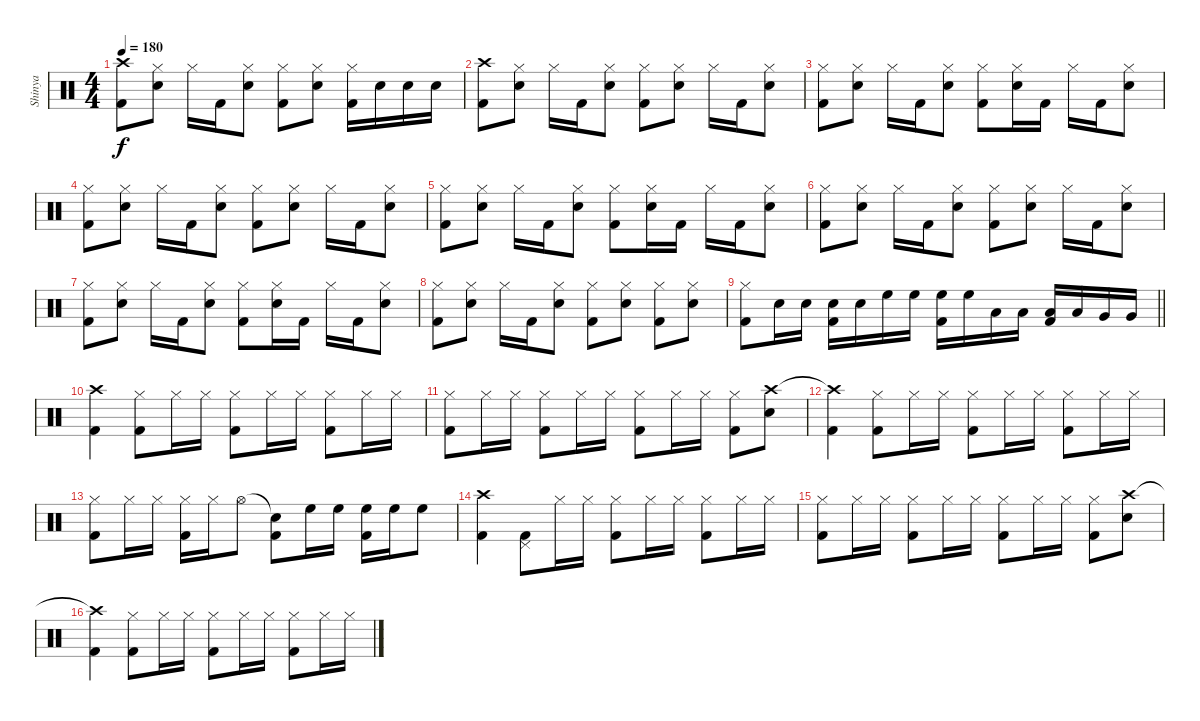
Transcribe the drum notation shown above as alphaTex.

\track ("Shinya" "Shinya") {instrument percussion}
\staff {score}
\articulation defaults
\ts (4 4)
\tempo 180
\clef neutral
\ks c
("Crash high (hit)" "Kick (hit) 2").8{dy f} ("Hi-Hat (closed)" "Electric Snare (hit)").8 "Hi-Hat (closed)".16 "Kick (hit) 2".16 ("Hi-Hat (closed)" "Electric Snare (hit)").8 ("Hi-Hat (closed)" "Kick (hit) 2").8 ("Hi-Hat (closed)" "Electric Snare (hit)").8 ("Hi-Hat (closed)" "Kick (hit) 2").16 "Electric Snare (hit)".16 "Electric Snare (hit)".16 "Electric Snare (hit)".16 |
("Crash high (hit)" "Kick (hit) 2").8 ("Hi-Hat (closed)" "Electric Snare (hit)").8 "Hi-Hat (closed)".16 "Kick (hit) 2".16 ("Hi-Hat (closed)" "Electric Snare (hit)").8 ("Hi-Hat (closed)" "Kick (hit) 2").8 ("Hi-Hat (closed)" "Electric Snare (hit)").8 "Hi-Hat (closed)".16 "Kick (hit) 2".16 ("Hi-Hat (closed)" "Electric Snare (hit)").8 |
("Hi-Hat (closed)" "Kick (hit) 2").8 ("Hi-Hat (closed)" "Electric Snare (hit)").8 "Hi-Hat (closed)".16 "Kick (hit) 2".16 ("Hi-Hat (closed)" "Electric Snare (hit)").8 ("Hi-Hat (closed)" "Kick (hit) 2").8 ("Hi-Hat (closed)" "Electric Snare (hit)").16 "Kick (hit) 2".16 "Hi-Hat (closed)".16 "Kick (hit) 2".16 ("Hi-Hat (closed)" "Electric Snare (hit)").8 |
("Hi-Hat (closed)" "Kick (hit) 2").8 ("Hi-Hat (closed)" "Electric Snare (hit)").8 "Hi-Hat (closed)".16 "Kick (hit) 2".16 ("Hi-Hat (closed)" "Electric Snare (hit)").8 ("Hi-Hat (closed)" "Kick (hit) 2").8 ("Hi-Hat (closed)" "Electric Snare (hit)").8 "Hi-Hat (closed)".16 "Kick (hit) 2".16 ("Hi-Hat (closed)" "Electric Snare (hit)").8 |
("Hi-Hat (closed)" "Kick (hit) 2").8 ("Hi-Hat (closed)" "Electric Snare (hit)").8 "Hi-Hat (closed)".16 "Kick (hit) 2".16 ("Hi-Hat (closed)" "Electric Snare (hit)").8 ("Hi-Hat (closed)" "Kick (hit) 2").8 ("Hi-Hat (closed)" "Electric Snare (hit)").16 "Kick (hit) 2".16 "Hi-Hat (closed)".16 "Kick (hit) 2".16 ("Hi-Hat (closed)" "Electric Snare (hit)").8 |
("Hi-Hat (closed)" "Kick (hit) 2").8 ("Hi-Hat (closed)" "Electric Snare (hit)").8 "Hi-Hat (closed)".16 "Kick (hit) 2".16 ("Hi-Hat (closed)" "Electric Snare (hit)").8 ("Hi-Hat (closed)" "Kick (hit) 2").8 ("Hi-Hat (closed)" "Electric Snare (hit)").8 "Hi-Hat (closed)".16 "Kick (hit) 2".16 ("Hi-Hat (closed)" "Electric Snare (hit)").8 |
("Hi-Hat (closed)" "Kick (hit) 2").8 ("Hi-Hat (closed)" "Electric Snare (hit)").8 "Hi-Hat (closed)".16 "Kick (hit) 2".16 ("Hi-Hat (closed)" "Electric Snare (hit)").8 ("Hi-Hat (closed)" "Kick (hit) 2").8 ("Hi-Hat (closed)" "Electric Snare (hit)").16 "Kick (hit) 2".16 "Hi-Hat (closed)".16 "Kick (hit) 2".16 ("Hi-Hat (closed)" "Electric Snare (hit)").8 |
("Hi-Hat (closed)" "Kick (hit) 2").8 ("Hi-Hat (closed)" "Electric Snare (hit)").8 "Hi-Hat (closed)".16 "Kick (hit) 2".16 ("Hi-Hat (closed)" "Electric Snare (hit)").8 ("Hi-Hat (closed)" "Kick (hit) 2").8 ("Hi-Hat (closed)" "Electric Snare (hit)").8 ("Hi-Hat (closed)" "Kick (hit) 2").8 ("Hi-Hat (closed)" "Electric Snare (hit)").8 |
\barLineRight lightlight
("Hi-Hat (closed)" "Kick (hit) 2").8 "Electric Snare (hit)".16 "Electric Snare (hit)".16 ("Electric Snare (hit)" "Kick (hit) 2").16 "Electric Snare (hit)".16 "High Floor Tom (hit)".16 "High Floor Tom (hit)".16 ("High Floor Tom (hit)" "Kick (hit) 2").16 "High Floor Tom (hit)".16 "Low Tom (hit)".16 "Low Tom (hit)".16 ("Low Tom (hit)" "Kick (hit) 2").16 "Low Tom (hit)".16 "Very Low Tom (hit)".16 "Very Low Tom (hit)".16 |
("Crash high (hit)" "Kick (hit) 2").4 ("Hi-Hat (closed)" "Kick (hit) 2").8 "Hi-Hat (closed)".16 "Hi-Hat (closed)".16 ("Hi-Hat (closed)" "Kick (hit) 2").8 "Hi-Hat (closed)".16 "Hi-Hat (closed)".16 ("Hi-Hat (closed)" "Kick (hit) 2").8 "Hi-Hat (closed)".16 "Hi-Hat (closed)".16 |
("Hi-Hat (closed)" "Kick (hit) 2").8 "Hi-Hat (closed)".16 "Hi-Hat (closed)".16 ("Hi-Hat (closed)" "Kick (hit) 2").8 "Hi-Hat (closed)".16 "Hi-Hat (closed)".16 ("Hi-Hat (closed)" "Kick (hit) 2").8 "Hi-Hat (closed)".16 "Hi-Hat (closed)".16 ("Hi-Hat (closed)" "Kick (hit) 2").8 ("Crash high (hit)" "Electric Snare (hit)").8 |
("Crash high (hit)"{t} "Kick (hit) 2").4 ("Hi-Hat (closed)" "Kick (hit) 2").8 "Hi-Hat (closed)".16 "Hi-Hat (closed)".16 ("Hi-Hat (closed)" "Kick (hit) 2").8 "Hi-Hat (closed)".16 "Hi-Hat (closed)".16 ("Hi-Hat (closed)" "Kick (hit) 2").8 "Hi-Hat (closed)".16 "Hi-Hat (closed)".16 |
("Hi-Hat (closed)" "Kick (hit) 2").8 "Hi-Hat (closed)".16 "Hi-Hat (closed)".16 ("Hi-Hat (closed)" "Kick (hit) 2").16 "Hi-Hat (closed)".16 "Hi-Hat (open)".8 ("Snare (hit)"{t} "Kick (hit) 2").8 "High Floor Tom (hit)".16 "High Floor Tom (hit)".16 ("High Floor Tom (hit)" "Kick (hit) 2").16 "High Floor Tom (hit)".16 "High Floor Tom (hit)".8 |
("Crash high (hit)" "Kick (hit) 2").4 ("Pedal Hi-Hat (hit)" "Kick (hit) 2").8 "Hi-Hat (closed)".16 "Hi-Hat (closed)".16 ("Hi-Hat (closed)" "Kick (hit) 2").8 "Hi-Hat (closed)".16 "Hi-Hat (closed)".16 ("Hi-Hat (closed)" "Kick (hit) 2").8 "Hi-Hat (closed)".16 "Hi-Hat (closed)".16 |
("Hi-Hat (closed)" "Kick (hit) 2").8 "Hi-Hat (closed)".16 "Hi-Hat (closed)".16 ("Hi-Hat (closed)" "Kick (hit) 2").8 "Hi-Hat (closed)".16 "Hi-Hat (closed)".16 ("Hi-Hat (closed)" "Kick (hit) 2").8 "Hi-Hat (closed)".16 "Hi-Hat (closed)".16 ("Hi-Hat (closed)" "Kick (hit) 2").8 ("Crash high (hit)" "Electric Snare (hit)").8 |
("Crash high (hit)"{t} "Kick (hit) 2").4 ("Hi-Hat (closed)" "Kick (hit) 2").8 "Hi-Hat (closed)".16 "Hi-Hat (closed)".16 ("Hi-Hat (closed)" "Kick (hit) 2").8 "Hi-Hat (closed)".16 "Hi-Hat (closed)".16 ("Hi-Hat (closed)" "Kick (hit) 2").8 "Hi-Hat (closed)".16 "Hi-Hat (closed)".16
